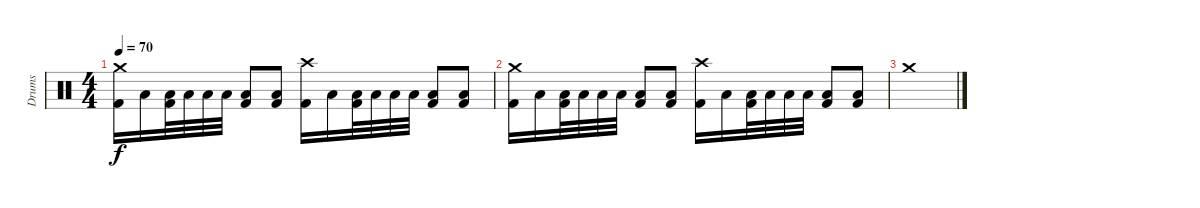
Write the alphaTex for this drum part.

\track ("Drums" "Drums") {instrument percussion}
\staff {score}
\articulation defaults
\ts (4 4)
\tempo 70
\clef neutral
\ks c
("Crash medium (hit)" "Kick (hit) 2").16{dy f} "Low Tom (hit)".16 ("Low Tom (hit)" "Kick (hit) 2").32 "Low Tom (hit)".32 "Low Tom (hit)".32 "Low Tom (hit)".32 ("Low Tom (hit)" "Kick (hit) 2").8 ("Low Tom (hit)" "Kick (hit) 2").8 ("Crash high (hit)" "Kick (hit) 2").16 "Low Tom (hit)".16 ("Low Tom (hit)" "Kick (hit) 2").32 "Low Tom (hit)".32 "Low Tom (hit)".32 "Low Tom (hit)".32 ("Low Tom (hit)" "Kick (hit) 2").8 ("Low Tom (hit)" "Kick (hit) 2").8 |
("Crash medium (hit)" "Kick (hit) 2").16 "Low Tom (hit)".16 ("Low Tom (hit)" "Kick (hit) 2").32 "Low Tom (hit)".32 "Low Tom (hit)".32 "Low Tom (hit)".32 ("Low Tom (hit)" "Kick (hit) 2").8 ("Low Tom (hit)" "Kick (hit) 2").8 ("Crash high (hit)" "Kick (hit) 2").16 "Low Tom (hit)".16 ("Low Tom (hit)" "Kick (hit) 2").32 "Low Tom (hit)".32 "Low Tom (hit)".32 "Low Tom (hit)".32 ("Low Tom (hit)" "Kick (hit) 2").8 ("Low Tom (hit)" "Kick (hit) 2").8 |
"Crash medium (hit)".1
